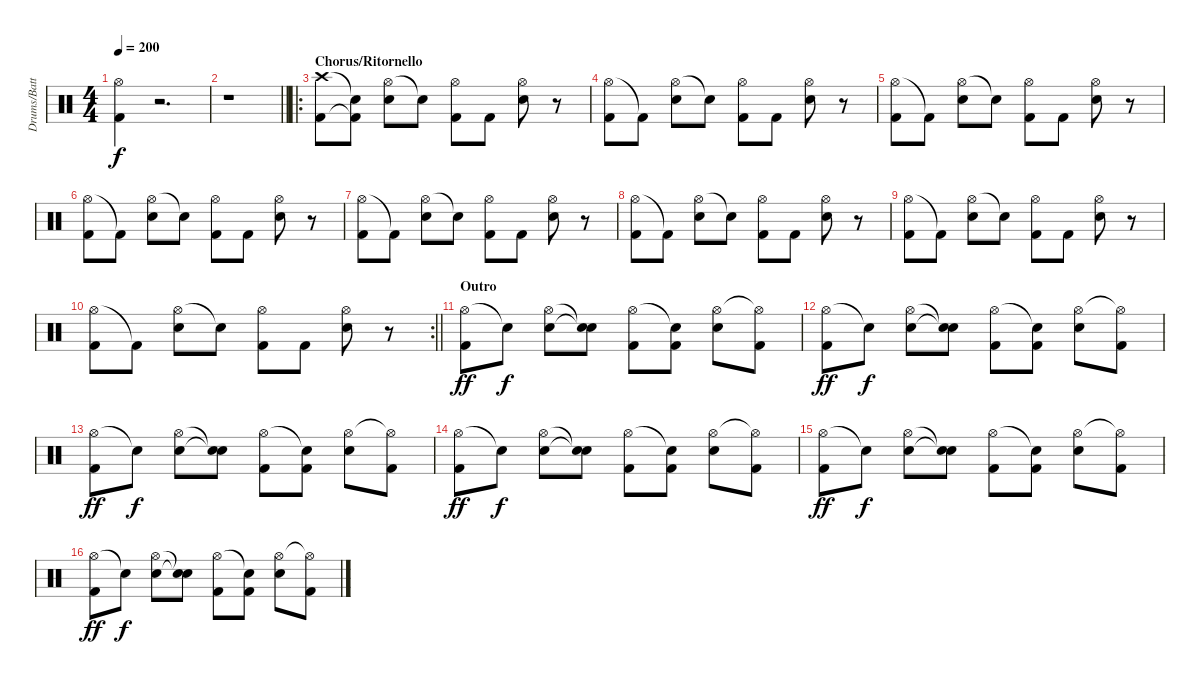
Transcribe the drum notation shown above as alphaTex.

\track ("Drums/Batteria" "Drums/Batt") {instrument percussion}
\staff {score}
\articulation defaults
\ts (4 4)
\tempo 200
\clef neutral
\ks c
("Hi-Hat (open)" "Kick (hit) 2").4{dy f} r.2{d} |
\barLineRight lightlight
r.1 |
\ro
\section ("" "Chorus/Ritornello")
("Crash high (hit)" "Kick (hit) 2").8 ("Snare (hit)"{t} "Kick (hit) 2"{t}).8 ("Hi-Hat (open)" "Electric Snare (hit)").8 "Snare (hit)"{t}.8 ("Hi-Hat (open)" "Kick (hit) 2").8 "Kick (hit) 2".8 ("Hi-Hat (open)" "Electric Snare (hit)").8 r.8 |
("Hi-Hat (open)" "Kick (hit) 2").8 "Kick (hit) 2"{t}.8 ("Hi-Hat (open)" "Electric Snare (hit)").8 "Electric Snare (hit)"{t}.8 ("Hi-Hat (open)" "Kick (hit) 2").8 "Kick (hit) 2".8 ("Hi-Hat (open)" "Electric Snare (hit)").8 r.8 |
("Hi-Hat (open)" "Kick (hit) 2").8 "Kick (hit) 2"{t}.8 ("Hi-Hat (open)" "Electric Snare (hit)").8 "Electric Snare (hit)"{t}.8 ("Hi-Hat (open)" "Kick (hit) 2").8 "Kick (hit) 2".8 ("Hi-Hat (open)" "Electric Snare (hit)").8 r.8 |
("Hi-Hat (open)" "Kick (hit) 2").8 "Kick (hit) 2"{t}.8 ("Hi-Hat (open)" "Electric Snare (hit)").8 "Electric Snare (hit)"{t}.8 ("Hi-Hat (open)" "Kick (hit) 2").8 "Kick (hit) 2".8 ("Hi-Hat (open)" "Electric Snare (hit)").8 r.8 |
("Hi-Hat (open)" "Kick (hit) 2").8 "Kick (hit) 2"{t}.8 ("Hi-Hat (open)" "Electric Snare (hit)").8 "Electric Snare (hit)"{t}.8 ("Hi-Hat (open)" "Kick (hit) 2").8 "Kick (hit) 2".8 ("Hi-Hat (open)" "Electric Snare (hit)").8 r.8 |
("Hi-Hat (open)" "Kick (hit) 2").8 "Kick (hit) 2"{t}.8 ("Hi-Hat (open)" "Electric Snare (hit)").8 "Electric Snare (hit)"{t}.8 ("Hi-Hat (open)" "Kick (hit) 2").8 "Kick (hit) 2".8 ("Hi-Hat (open)" "Electric Snare (hit)").8 r.8 |
("Hi-Hat (open)" "Kick (hit) 2").8 "Kick (hit) 2"{t}.8 ("Hi-Hat (open)" "Electric Snare (hit)").8 "Electric Snare (hit)"{t}.8 ("Hi-Hat (open)" "Kick (hit) 2").8 "Kick (hit) 2".8 ("Hi-Hat (open)" "Electric Snare (hit)").8 r.8 |
\rc 2
\barLineRight lightlight
("Hi-Hat (open)" "Kick (hit) 2").8 "Kick (hit) 2"{t}.8 ("Hi-Hat (open)" "Electric Snare (hit)").8 "Electric Snare (hit)"{t}.8 ("Hi-Hat (open)" "Kick (hit) 2").8 "Kick (hit) 2".8 ("Hi-Hat (open)" "Electric Snare (hit)").8 r.8 |
\section ("" "Outro")
("Hi-Hat (open)" "Kick (hit) 2").8{dy ff} "Snare (hit)"{t}.8{dy f} ("Hi-Hat (open)" "Electric Snare (hit)").8 ("Snare (hit)"{t} "Snare (hit)"{t}).8 ("Hi-Hat (open)" "Kick (hit) 2").8 ("Snare (hit)"{t} "Kick (hit) 2").8 ("Hi-Hat (open)" "Electric Snare (hit)").8 ("Hi-Hat (open)"{t} "Kick (hit) 2").8 |
("Hi-Hat (open)" "Kick (hit) 2").8{dy ff} "Snare (hit)"{t}.8{dy f} ("Hi-Hat (open)" "Electric Snare (hit)").8 ("Snare (hit)"{t} "Snare (hit)"{t}).8 ("Hi-Hat (open)" "Kick (hit) 2").8 ("Snare (hit)"{t} "Kick (hit) 2").8 ("Hi-Hat (open)" "Electric Snare (hit)").8 ("Hi-Hat (open)"{t} "Kick (hit) 2").8 |
("Hi-Hat (open)" "Kick (hit) 2").8{dy ff} "Snare (hit)"{t}.8{dy f} ("Hi-Hat (open)" "Electric Snare (hit)").8 ("Snare (hit)"{t} "Snare (hit)"{t}).8 ("Hi-Hat (open)" "Kick (hit) 2").8 ("Snare (hit)"{t} "Kick (hit) 2").8 ("Hi-Hat (open)" "Electric Snare (hit)").8 ("Hi-Hat (open)"{t} "Kick (hit) 2").8 |
("Hi-Hat (open)" "Kick (hit) 2").8{dy ff} "Snare (hit)"{t}.8{dy f} ("Hi-Hat (open)" "Electric Snare (hit)").8 ("Snare (hit)"{t} "Snare (hit)"{t}).8 ("Hi-Hat (open)" "Kick (hit) 2").8 ("Snare (hit)"{t} "Kick (hit) 2").8 ("Hi-Hat (open)" "Electric Snare (hit)").8 ("Hi-Hat (open)"{t} "Kick (hit) 2").8 |
("Hi-Hat (open)" "Kick (hit) 2").8{dy ff} "Snare (hit)"{t}.8{dy f} ("Hi-Hat (open)" "Electric Snare (hit)").8 ("Snare (hit)"{t} "Snare (hit)"{t}).8 ("Hi-Hat (open)" "Kick (hit) 2").8 ("Snare (hit)"{t} "Kick (hit) 2").8 ("Hi-Hat (open)" "Electric Snare (hit)").8 ("Hi-Hat (open)"{t} "Kick (hit) 2").8 |
("Hi-Hat (open)" "Kick (hit) 2").8{dy ff} "Snare (hit)"{t}.8{dy f} ("Hi-Hat (open)" "Electric Snare (hit)").8 ("Snare (hit)"{t} "Snare (hit)"{t}).8 ("Hi-Hat (open)" "Kick (hit) 2").8 ("Snare (hit)"{t} "Kick (hit) 2").8 ("Hi-Hat (open)" "Electric Snare (hit)").8 ("Hi-Hat (open)"{t} "Kick (hit) 2").8
